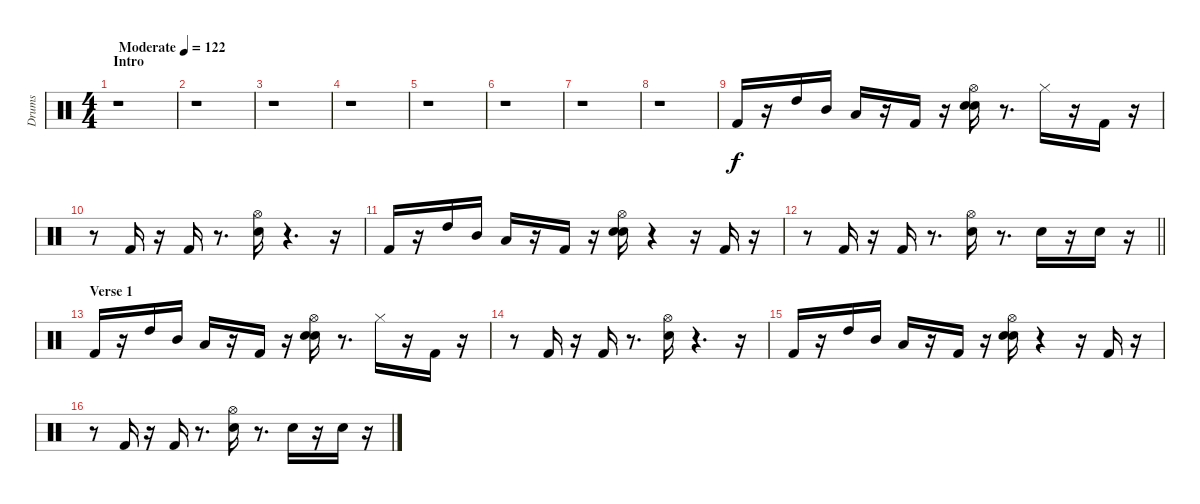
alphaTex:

\track ("Drums" "Drums") {instrument percussion}
\staff
\articulation defaults
\ts (4 4)
\section ("" "Intro")
\tempo (122 "Moderate")
\clef neutral
\ks c
r.1{dy f} |
r.1 |
r.1 |
r.1 |
r.1 |
r.1 |
r.1 |
r.1 |
"Kick (hit) 2".16 r.16 "High Tom (hit)".16 "Mid Tom (hit)".16 "Low Tom (hit)".16 r.16 "Kick (hit) 2".16 r.16 ("Electric Snare (hit)" "Hi-Hat (open)" "Snare (hit) 2").16 r.8{d} "Hi-Hat (closed)".16 r.16 "Kick (hit) 2".16 r.16 |
r.8 "Kick (hit) 2".16 r.16 "Kick (hit) 2".16 r.8{d} ("Hi-Hat (open)" "Snare (hit) 2").16 r.4{d} r.16 |
"Kick (hit) 2".16 r.16 "High Tom (hit)".16 "Mid Tom (hit)".16 "Low Tom (hit)".16 r.16 "Kick (hit) 2".16 r.16 ("Hi-Hat (open)" "Electric Snare (hit)" "Snare (hit) 2").16 r.4 r.16 "Kick (hit) 2".16 r.16 |
\barLineRight lightlight
r.8 "Kick (hit) 2".16 r.16 "Kick (hit) 2".16 r.8{d} ("Hi-Hat (open)" "Snare (hit) 2").16 r.8{d} "Snare (hit) 2".16 r.16 "Snare (hit) 2".16 r.16 |
\section ("" "Verse 1")
"Kick (hit) 2".16 r.16 "High Tom (hit)".16 "Mid Tom (hit)".16 "Low Tom (hit)".16 r.16 "Kick (hit) 2".16 r.16 ("Electric Snare (hit)" "Hi-Hat (open)" "Snare (hit) 2").16 r.8{d} "Hi-Hat (closed)".16 r.16 "Kick (hit) 2".16 r.16 |
r.8 "Kick (hit) 2".16 r.16 "Kick (hit) 2".16 r.8{d} ("Hi-Hat (open)" "Snare (hit) 2").16 r.4{d} r.16 |
"Kick (hit) 2".16 r.16 "High Tom (hit)".16 "Mid Tom (hit)".16 "Low Tom (hit)".16 r.16 "Kick (hit) 2".16 r.16 ("Hi-Hat (open)" "Electric Snare (hit)" "Snare (hit) 2").16 r.4 r.16 "Kick (hit) 2".16 r.16 |
r.8 "Kick (hit) 2".16 r.16 "Kick (hit) 2".16 r.8{d} ("Hi-Hat (open)" "Snare (hit) 2").16 r.8{d} "Snare (hit) 2".16 r.16 "Snare (hit) 2".16 r.16
